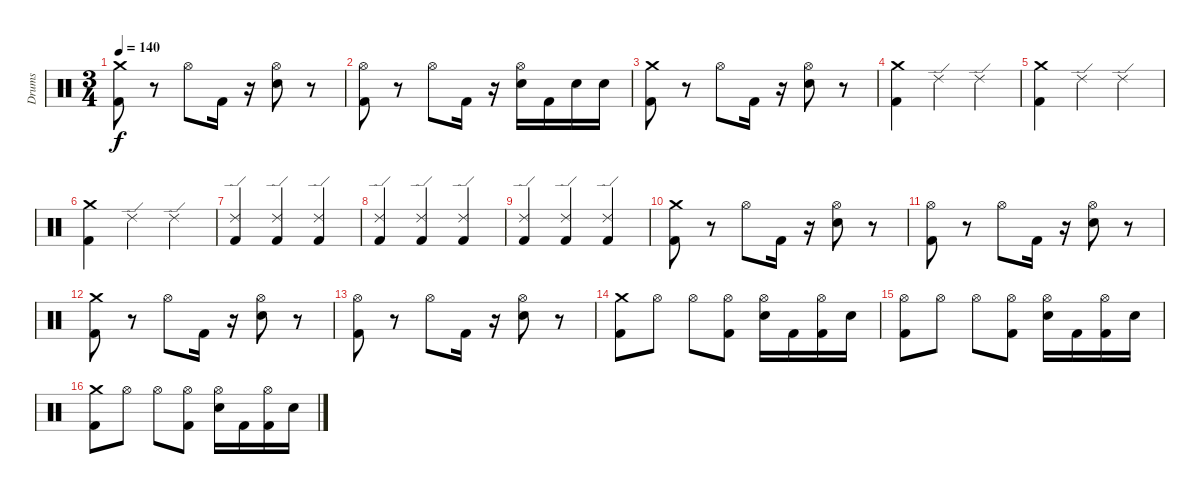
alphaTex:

\track ("Drums" "Drums") {instrument percussion}
\staff {score}
\articulation defaults
\ts (3 4)
\tempo 140
\clef neutral
\ks c
("Kick (hit) 2" "Crash medium (hit)").8{dy f} r.8 "Hi-Hat (open)".8 "Kick (hit) 2".16 r.16 ("Electric Snare (hit)" "Hi-Hat (open)").8 r.8 |
("Kick (hit) 2" "Hi-Hat (open)").8 r.8 "Hi-Hat (open)".8 "Kick (hit) 2".16 r.16 ("Electric Snare (hit)" "Hi-Hat (open)").16 "Kick (hit) 2".16 "Electric Snare (hit)".16 "Electric Snare (hit)".16 |
("Kick (hit) 2" "Crash medium (hit)").8 r.8 "Hi-Hat (open)".8 "Kick (hit) 2".16 r.16 ("Electric Snare (hit)" "Hi-Hat (open)").8 r.8 |
("Kick (hit) 2" "Crash medium (hit)").4 "Ride (edge) 2".4 "Ride (edge) 2".4 |
("Kick (hit) 2" "Crash medium (hit)").4 "Ride (edge) 2".4 "Ride (edge) 2".4 |
("Kick (hit) 2" "Crash medium (hit)").4 "Ride (edge) 2".4 "Ride (edge) 2".4 |
("Kick (hit) 2" "Ride (edge) 2").4 ("Kick (hit) 2" "Ride (edge) 2").4 ("Kick (hit) 2" "Ride (edge) 2").4 |
("Kick (hit) 2" "Ride (edge) 2").4 ("Kick (hit) 2" "Ride (edge) 2").4 ("Kick (hit) 2" "Ride (edge) 2").4 |
("Kick (hit) 2" "Ride (edge) 2").4 ("Kick (hit) 2" "Ride (edge) 2").4 ("Kick (hit) 2" "Ride (edge) 2").4 |
("Kick (hit) 2" "Crash medium (hit)").8 r.8 "Hi-Hat (open)".8 "Kick (hit) 2".16 r.16 ("Electric Snare (hit)" "Hi-Hat (open)").8 r.8 |
("Kick (hit) 2" "Hi-Hat (open)").8 r.8 "Hi-Hat (open)".8 "Kick (hit) 2".16 r.16 ("Electric Snare (hit)" "Hi-Hat (open)").8 r.8 |
("Kick (hit) 2" "Crash medium (hit)").8 r.8 "Hi-Hat (open)".8 "Kick (hit) 2".16 r.16 ("Electric Snare (hit)" "Hi-Hat (open)").8 r.8 |
("Kick (hit) 2" "Hi-Hat (open)").8 r.8 "Hi-Hat (open)".8 "Kick (hit) 2".16 r.16 ("Electric Snare (hit)" "Hi-Hat (open)").8 r.8 |
("Kick (hit) 2" "Crash medium (hit)").8 "Hi-Hat (open)".8 "Hi-Hat (open)".8 ("Kick (hit) 2" "Hi-Hat (open)").8 ("Electric Snare (hit)" "Hi-Hat (open)").16 "Kick (hit) 2".16 ("Kick (hit) 2" "Hi-Hat (open)").16 "Electric Snare (hit)".16 |
("Kick (hit) 2" "Hi-Hat (open)").8 "Hi-Hat (open)".8 "Hi-Hat (open)".8 ("Kick (hit) 2" "Hi-Hat (open)").8 ("Electric Snare (hit)" "Hi-Hat (open)").16 "Kick (hit) 2".16 ("Kick (hit) 2" "Hi-Hat (open)").16 "Electric Snare (hit)".16 |
("Kick (hit) 2" "Crash medium (hit)").8 "Hi-Hat (open)".8 "Hi-Hat (open)".8 ("Kick (hit) 2" "Hi-Hat (open)").8 ("Electric Snare (hit)" "Hi-Hat (open)").16 "Kick (hit) 2".16 ("Kick (hit) 2" "Hi-Hat (open)").16 "Electric Snare (hit)".16
